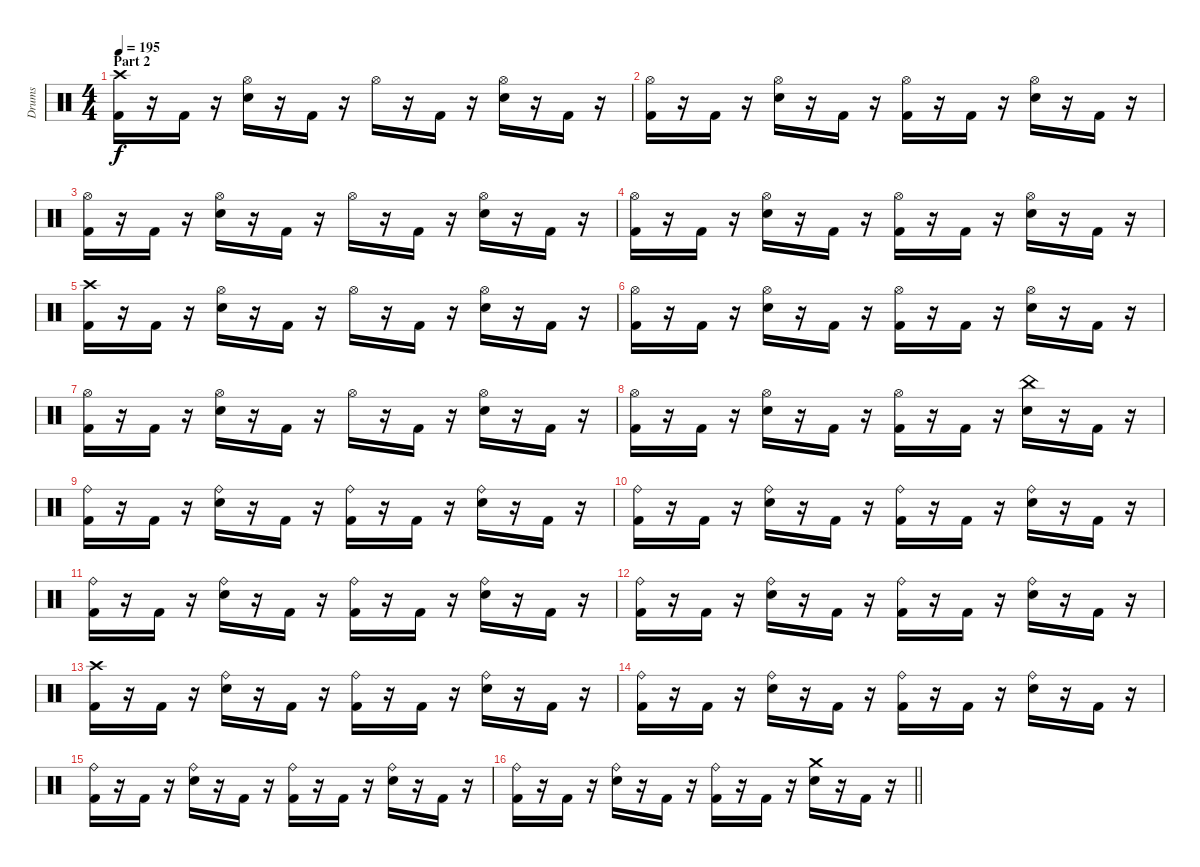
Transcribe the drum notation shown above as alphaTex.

\track ("Drums" "Drums") {instrument percussion}
\staff {score}
\articulation defaults
\ts (4 4)
\section ("" "Part 2")
\tempo 195
\clef neutral
\ks c
("Crash high (hit)" "Kick (hit) 2").16{dy f} r.16 "Kick (hit) 2".16 r.16 ("Hi-Hat (open)" "Electric Snare (hit)").16 r.16 "Kick (hit) 2".16 r.16 "Hi-Hat (open)".16 r.16 "Kick (hit) 2".16 r.16 ("Hi-Hat (open)" "Electric Snare (hit)").16 r.16 "Kick (hit) 2".16 r.16 |
("Hi-Hat (open)" "Kick (hit) 2").16 r.16 "Kick (hit) 2".16 r.16 ("Hi-Hat (open)" "Electric Snare (hit)").16 r.16 "Kick (hit) 2".16 r.16 ("Hi-Hat (open)" "Kick (hit) 2").16 r.16 "Kick (hit) 2".16 r.16 ("Hi-Hat (open)" "Electric Snare (hit)").16 r.16 "Kick (hit) 2".16 r.16 |
("Hi-Hat (open)" "Kick (hit) 2").16 r.16 "Kick (hit) 2".16 r.16 ("Hi-Hat (open)" "Electric Snare (hit)").16 r.16 "Kick (hit) 2".16 r.16 "Hi-Hat (open)".16 r.16 "Kick (hit) 2".16 r.16 ("Hi-Hat (open)" "Electric Snare (hit)").16 r.16 "Kick (hit) 2".16 r.16 |
("Hi-Hat (open)" "Kick (hit) 2").16 r.16 "Kick (hit) 2".16 r.16 ("Hi-Hat (open)" "Electric Snare (hit)").16 r.16 "Kick (hit) 2".16 r.16 ("Hi-Hat (open)" "Kick (hit) 2").16 r.16 "Kick (hit) 2".16 r.16 ("Hi-Hat (open)" "Electric Snare (hit)").16 r.16 "Kick (hit) 2".16 r.16 |
("Crash high (hit)" "Kick (hit) 2").16 r.16 "Kick (hit) 2".16 r.16 ("Hi-Hat (open)" "Electric Snare (hit)").16 r.16 "Kick (hit) 2".16 r.16 "Hi-Hat (open)".16 r.16 "Kick (hit) 2".16 r.16 ("Hi-Hat (open)" "Electric Snare (hit)").16 r.16 "Kick (hit) 2".16 r.16 |
("Hi-Hat (open)" "Kick (hit) 2").16 r.16 "Kick (hit) 2".16 r.16 ("Hi-Hat (open)" "Electric Snare (hit)").16 r.16 "Kick (hit) 2".16 r.16 ("Hi-Hat (open)" "Kick (hit) 2").16 r.16 "Kick (hit) 2".16 r.16 ("Hi-Hat (open)" "Electric Snare (hit)").16 r.16 "Kick (hit) 2".16 r.16 |
("Hi-Hat (open)" "Kick (hit) 2").16 r.16 "Kick (hit) 2".16 r.16 ("Hi-Hat (open)" "Electric Snare (hit)").16 r.16 "Kick (hit) 2".16 r.16 "Hi-Hat (open)".16 r.16 "Kick (hit) 2".16 r.16 ("Hi-Hat (open)" "Electric Snare (hit)").16 r.16 "Kick (hit) 2".16 r.16 |
("Hi-Hat (open)" "Kick (hit) 2").16 r.16 "Kick (hit) 2".16 r.16 ("Hi-Hat (open)" "Electric Snare (hit)").16 r.16 "Kick (hit) 2".16 r.16 ("Hi-Hat (open)" "Kick (hit) 2").16 r.16 "Kick (hit) 2".16 r.16 ("China (hit)" "Electric Snare (hit)").16 r.16 "Kick (hit) 2".16 r.16 |
("Ride (bell)" "Kick (hit) 2").16 r.16 "Kick (hit) 2".16 r.16 ("Ride (bell)" "Electric Snare (hit)").16 r.16 "Kick (hit) 2".16 r.16 ("Ride (bell)" "Kick (hit) 2").16 r.16 "Kick (hit) 2".16 r.16 ("Ride (bell)" "Electric Snare (hit)").16 r.16 "Kick (hit) 2".16 r.16 |
("Ride (bell)" "Kick (hit) 2").16 r.16 "Kick (hit) 2".16 r.16 ("Ride (bell)" "Electric Snare (hit)").16 r.16 "Kick (hit) 2".16 r.16 ("Ride (bell)" "Kick (hit) 2").16 r.16 "Kick (hit) 2".16 r.16 ("Ride (bell)" "Electric Snare (hit)").16 r.16 "Kick (hit) 2".16 r.16 |
("Ride (bell)" "Kick (hit) 2").16 r.16 "Kick (hit) 2".16 r.16 ("Ride (bell)" "Electric Snare (hit)").16 r.16 "Kick (hit) 2".16 r.16 ("Ride (bell)" "Kick (hit) 2").16 r.16 "Kick (hit) 2".16 r.16 ("Ride (bell)" "Electric Snare (hit)").16 r.16 "Kick (hit) 2".16 r.16 |
("Ride (bell)" "Kick (hit) 2").16 r.16 "Kick (hit) 2".16 r.16 ("Ride (bell)" "Electric Snare (hit)").16 r.16 "Kick (hit) 2".16 r.16 ("Ride (bell)" "Kick (hit) 2").16 r.16 "Kick (hit) 2".16 r.16 ("Ride (bell)" "Electric Snare (hit)").16 r.16 "Kick (hit) 2".16 r.16 |
("Crash high (hit)" "Kick (hit) 2").16 r.16 "Kick (hit) 2".16 r.16 ("Ride (bell)" "Electric Snare (hit)").16 r.16 "Kick (hit) 2".16 r.16 ("Ride (bell)" "Kick (hit) 2").16 r.16 "Kick (hit) 2".16 r.16 ("Ride (bell)" "Electric Snare (hit)").16 r.16 "Kick (hit) 2".16 r.16 |
("Ride (bell)" "Kick (hit) 2").16 r.16 "Kick (hit) 2".16 r.16 ("Ride (bell)" "Electric Snare (hit)").16 r.16 "Kick (hit) 2".16 r.16 ("Ride (bell)" "Kick (hit) 2").16 r.16 "Kick (hit) 2".16 r.16 ("Ride (bell)" "Electric Snare (hit)").16 r.16 "Kick (hit) 2".16 r.16 |
("Ride (bell)" "Kick (hit) 2").16 r.16 "Kick (hit) 2".16 r.16 ("Ride (bell)" "Electric Snare (hit)").16 r.16 "Kick (hit) 2".16 r.16 ("Ride (bell)" "Kick (hit) 2").16 r.16 "Kick (hit) 2".16 r.16 ("Ride (bell)" "Electric Snare (hit)").16 r.16 "Kick (hit) 2".16 r.16 |
\barLineRight lightlight
("Ride (bell)" "Kick (hit) 2").16 r.16 "Kick (hit) 2".16 r.16 ("Ride (bell)" "Electric Snare (hit)").16 r.16 "Kick (hit) 2".16 r.16 ("Ride (bell)" "Kick (hit) 2").16 r.16 "Kick (hit) 2".16 r.16 ("Crash medium (hit)" "Electric Snare (hit)").16 r.16 "Kick (hit) 2".16 r.16
